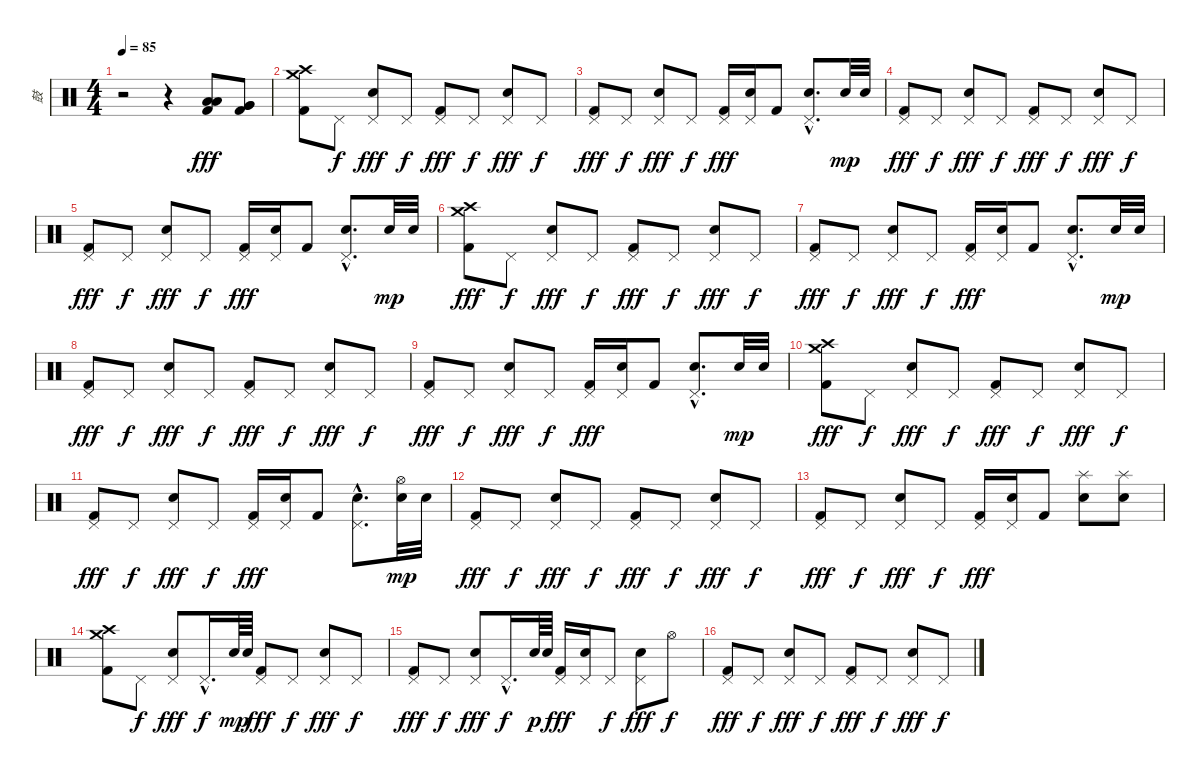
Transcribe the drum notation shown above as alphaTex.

\track ("鼓" "鼓") {instrument percussion}
\staff {score}
\articulation defaults
\ts (4 4)
\tempo 85
\clef neutral
\ks c
r.2{dy fff} r.4 ("Low Tom (hit)" "Low Tom (hit)" "Kick (hit) 2").8 ("Very Low Tom (hit)" "Very Low Tom (hit)" "Kick (hit) 2").8 |
("Crash medium (hit)" "Crash high (hit)" "Kick (hit) 2").8 "Pedal Hi-Hat (hit)".8{dy f} ("Pedal Hi-Hat (hit)" "Snare (hit) 2").8{dy fff} "Pedal Hi-Hat (hit)".8{dy f} ("Pedal Hi-Hat (hit)" "Kick (hit) 2").8{dy fff} "Pedal Hi-Hat (hit)".8{dy f} ("Pedal Hi-Hat (hit)" "Snare (hit) 2").8{dy fff} "Pedal Hi-Hat (hit)".8{dy f} |
("Pedal Hi-Hat (hit)" "Kick (hit) 2").8{dy fff} "Pedal Hi-Hat (hit)".8{dy f} ("Pedal Hi-Hat (hit)" "Snare (hit) 2").8{dy fff} "Pedal Hi-Hat (hit)".8{dy f} ("Pedal Hi-Hat (hit)" "Kick (hit) 2").16{dy fff} ("Pedal Hi-Hat (hit)" "Snare (hit) 2").16 "Kick (hit) 2".8 ("Pedal Hi-Hat (hit)"{hac} "Snare (hit) 2"{hac}).8{d} "Snare (hit) 2".32{dy mp} "Snare (hit) 2".32 |
("Pedal Hi-Hat (hit)" "Kick (hit) 2").8{dy fff} "Pedal Hi-Hat (hit)".8{dy f} ("Pedal Hi-Hat (hit)" "Snare (hit) 2").8{dy fff} "Pedal Hi-Hat (hit)".8{dy f} ("Pedal Hi-Hat (hit)" "Kick (hit) 2").8{dy fff} "Pedal Hi-Hat (hit)".8{dy f} ("Pedal Hi-Hat (hit)" "Snare (hit) 2").8{dy fff} "Pedal Hi-Hat (hit)".8{dy f} |
("Pedal Hi-Hat (hit)" "Kick (hit) 2").8{dy fff} "Pedal Hi-Hat (hit)".8{dy f} ("Pedal Hi-Hat (hit)" "Snare (hit) 2").8{dy fff} "Pedal Hi-Hat (hit)".8{dy f} ("Pedal Hi-Hat (hit)" "Kick (hit) 2").16{dy fff} ("Pedal Hi-Hat (hit)" "Snare (hit) 2").16 "Kick (hit) 2".8 ("Pedal Hi-Hat (hit)"{hac} "Snare (hit) 2"{hac}).8{d} "Snare (hit) 2".32{dy mp} "Snare (hit) 2".32 |
("Crash medium (hit)" "Crash high (hit)" "Kick (hit) 2").8{dy fff} "Pedal Hi-Hat (hit)".8{dy f} ("Pedal Hi-Hat (hit)" "Snare (hit) 2").8{dy fff} "Pedal Hi-Hat (hit)".8{dy f} ("Pedal Hi-Hat (hit)" "Kick (hit) 2").8{dy fff} "Pedal Hi-Hat (hit)".8{dy f} ("Pedal Hi-Hat (hit)" "Snare (hit) 2").8{dy fff} "Pedal Hi-Hat (hit)".8{dy f} |
("Pedal Hi-Hat (hit)" "Kick (hit) 2").8{dy fff} "Pedal Hi-Hat (hit)".8{dy f} ("Pedal Hi-Hat (hit)" "Snare (hit) 2").8{dy fff} "Pedal Hi-Hat (hit)".8{dy f} ("Pedal Hi-Hat (hit)" "Kick (hit) 2").16{dy fff} ("Pedal Hi-Hat (hit)" "Snare (hit) 2").16 "Kick (hit) 2".8 ("Pedal Hi-Hat (hit)"{hac} "Snare (hit) 2"{hac}).8{d} "Snare (hit) 2".32{dy mp} "Snare (hit) 2".32 |
("Pedal Hi-Hat (hit)" "Kick (hit) 2").8{dy fff} "Pedal Hi-Hat (hit)".8{dy f} ("Pedal Hi-Hat (hit)" "Snare (hit) 2").8{dy fff} "Pedal Hi-Hat (hit)".8{dy f} ("Pedal Hi-Hat (hit)" "Kick (hit) 2").8{dy fff} "Pedal Hi-Hat (hit)".8{dy f} ("Pedal Hi-Hat (hit)" "Snare (hit) 2").8{dy fff} "Pedal Hi-Hat (hit)".8{dy f} |
("Pedal Hi-Hat (hit)" "Kick (hit) 2").8{dy fff} "Pedal Hi-Hat (hit)".8{dy f} ("Pedal Hi-Hat (hit)" "Snare (hit) 2").8{dy fff} "Pedal Hi-Hat (hit)".8{dy f} ("Pedal Hi-Hat (hit)" "Kick (hit) 2").16{dy fff} ("Pedal Hi-Hat (hit)" "Snare (hit) 2").16 "Kick (hit) 2".8 ("Pedal Hi-Hat (hit)"{hac} "Snare (hit) 2"{hac}).8{d} "Snare (hit) 2".32{dy mp} "Snare (hit) 2".32 |
("Crash medium (hit)" "Crash high (hit)" "Kick (hit) 2").8{dy fff} "Pedal Hi-Hat (hit)".8{dy f} ("Pedal Hi-Hat (hit)" "Snare (hit) 2").8{dy fff} "Pedal Hi-Hat (hit)".8{dy f} ("Pedal Hi-Hat (hit)" "Kick (hit) 2").8{dy fff} "Pedal Hi-Hat (hit)".8{dy f} ("Pedal Hi-Hat (hit)" "Snare (hit) 2").8{dy fff} "Pedal Hi-Hat (hit)".8{dy f} |
("Pedal Hi-Hat (hit)" "Kick (hit) 2").8{dy fff} "Pedal Hi-Hat (hit)".8{dy f} ("Pedal Hi-Hat (hit)" "Snare (hit) 2").8{dy fff} "Pedal Hi-Hat (hit)".8{dy f} ("Pedal Hi-Hat (hit)" "Kick (hit) 2").16{dy fff} ("Pedal Hi-Hat (hit)" "Snare (hit) 2").16 "Kick (hit) 2".8 ("Pedal Hi-Hat (hit)"{hac} "Snare (hit) 2"{hac}).8{d} ("Hi-Hat (open)" "Snare (hit) 2").32{dy mp} "Snare (hit) 2".32 |
("Pedal Hi-Hat (hit)" "Kick (hit) 2").8{dy fff} "Pedal Hi-Hat (hit)".8{dy f} ("Pedal Hi-Hat (hit)" "Snare (hit) 2").8{dy fff} "Pedal Hi-Hat (hit)".8{dy f} ("Pedal Hi-Hat (hit)" "Kick (hit) 2").8{dy fff} "Pedal Hi-Hat (hit)".8{dy f} ("Pedal Hi-Hat (hit)" "Snare (hit) 2").8{dy fff} "Pedal Hi-Hat (hit)".8{dy f} |
("Pedal Hi-Hat (hit)" "Kick (hit) 2").8{dy fff} "Pedal Hi-Hat (hit)".8{dy f} ("Pedal Hi-Hat (hit)" "Snare (hit) 2").8{dy fff} "Pedal Hi-Hat (hit)".8{dy f} ("Pedal Hi-Hat (hit)" "Kick (hit) 2").16{dy fff} ("Pedal Hi-Hat (hit)" "Snare (hit) 2").16 "Kick (hit) 2".8 ("Splash (hit)" "Snare (hit) 2").8 ("Splash (hit)" "Snare (hit) 2").8 |
("Crash high (hit)" "Crash medium (hit)" "Kick (hit) 2").8 "Pedal Hi-Hat (hit)".8{dy f} ("Pedal Hi-Hat (hit)" "Snare (hit) 2").8{dy fff} "Pedal Hi-Hat (hit)"{hac}.16{d dy f} "Snare (hit) 2".64{dy mp} "Snare (hit) 2".64 ("Pedal Hi-Hat (hit)" "Kick (hit) 2").8{dy fff} "Pedal Hi-Hat (hit)".8{dy f} ("Pedal Hi-Hat (hit)" "Snare (hit) 2").8{dy fff} "Pedal Hi-Hat (hit)".8{dy f} |
("Pedal Hi-Hat (hit)" "Kick (hit) 2").8{dy fff} "Pedal Hi-Hat (hit)".8{dy f} ("Pedal Hi-Hat (hit)" "Snare (hit) 2").8{dy fff} "Pedal Hi-Hat (hit)"{hac}.16{d dy f} "Snare (hit) 2".64{dy p} "Snare (hit) 2".64 ("Pedal Hi-Hat (hit)" "Kick (hit) 2").16{dy fff} ("Pedal Hi-Hat (hit)" "Snare (hit) 2").16 "Pedal Hi-Hat (hit)".8{dy f} ("Pedal Hi-Hat (hit)" "Snare (hit) 2").8{dy fff} "Hi-Hat (open)".8{dy f} |
("Pedal Hi-Hat (hit)" "Kick (hit) 2").8{dy fff} "Pedal Hi-Hat (hit)".8{dy f} ("Pedal Hi-Hat (hit)" "Snare (hit) 2").8{dy fff} "Pedal Hi-Hat (hit)".8{dy f} ("Pedal Hi-Hat (hit)" "Kick (hit) 2").8{dy fff} "Pedal Hi-Hat (hit)".8{dy f} ("Pedal Hi-Hat (hit)" "Snare (hit) 2").8{dy fff} "Pedal Hi-Hat (hit)".8{dy f}
